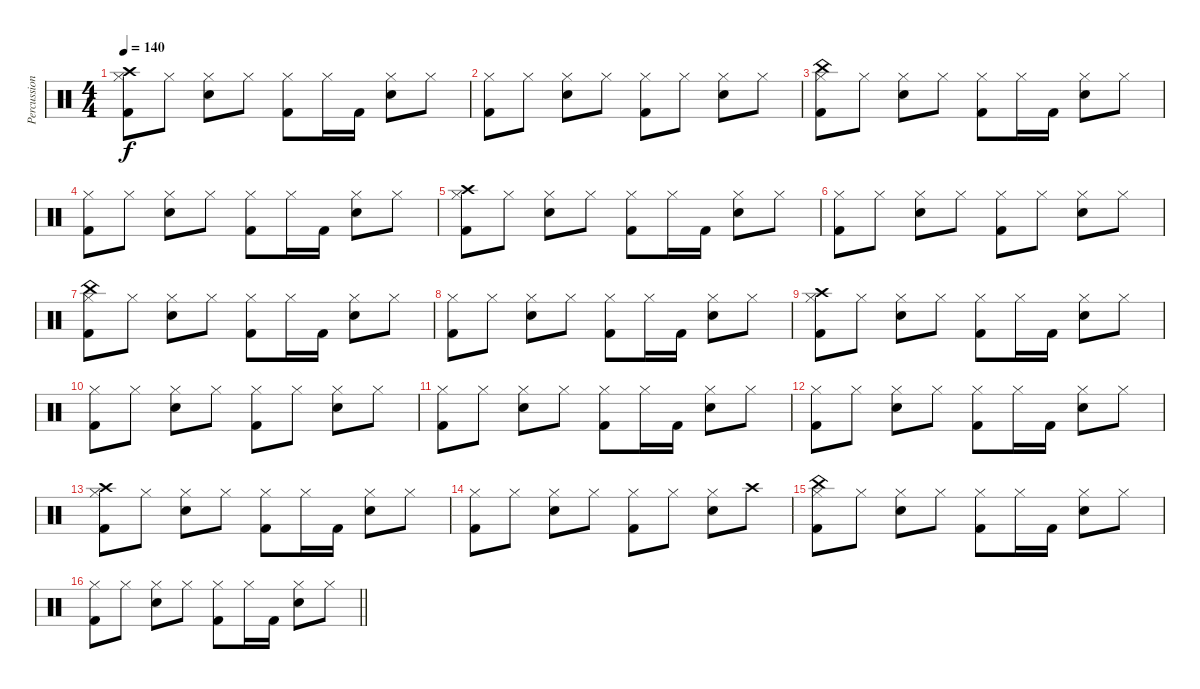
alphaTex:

\track ("Percussion" "Percussion") {instrument percussion}
\staff {score}
\articulation defaults
\ts (4 4)
\tempo 140
\clef neutral
\ks c
("Crash high (hit)" "Hi-Hat (closed)" "Kick (hit) 2").8{dy f} "Hi-Hat (closed)".8 ("Hi-Hat (closed)" "Electric Snare (hit)").8 "Hi-Hat (closed)".8 ("Hi-Hat (closed)" "Kick (hit) 2").8 "Hi-Hat (closed)".16 "Kick (hit) 2".16 ("Hi-Hat (closed)" "Electric Snare (hit)").8 "Hi-Hat (closed)".8 |
("Hi-Hat (closed)" "Kick (hit) 2").8 "Hi-Hat (closed)".8 ("Hi-Hat (closed)" "Electric Snare (hit)").8 "Hi-Hat (closed)".8 ("Hi-Hat (closed)" "Kick (hit) 2").8 "Hi-Hat (closed)".8 ("Hi-Hat (closed)" "Electric Snare (hit)").8 "Hi-Hat (closed)".8 |
("China (hit)" "Hi-Hat (closed)" "Kick (hit) 2").8 "Hi-Hat (closed)".8 ("Hi-Hat (closed)" "Electric Snare (hit)").8 "Hi-Hat (closed)".8 ("Hi-Hat (closed)" "Kick (hit) 2").8 "Hi-Hat (closed)".16 "Kick (hit) 2".16 ("Hi-Hat (closed)" "Electric Snare (hit)").8 "Hi-Hat (closed)".8 |
("Hi-Hat (closed)" "Kick (hit) 2").8 "Hi-Hat (closed)".8 ("Hi-Hat (closed)" "Electric Snare (hit)").8 "Hi-Hat (closed)".8 ("Hi-Hat (closed)" "Kick (hit) 2").8 "Hi-Hat (closed)".16 "Kick (hit) 2".16 ("Hi-Hat (closed)" "Electric Snare (hit)").8 "Hi-Hat (closed)".8 |
("Crash high (hit)" "Hi-Hat (closed)" "Kick (hit) 2").8 "Hi-Hat (closed)".8 ("Hi-Hat (closed)" "Electric Snare (hit)").8 "Hi-Hat (closed)".8 ("Hi-Hat (closed)" "Kick (hit) 2").8 "Hi-Hat (closed)".16 "Kick (hit) 2".16 ("Hi-Hat (closed)" "Electric Snare (hit)").8 "Hi-Hat (closed)".8 |
("Hi-Hat (closed)" "Kick (hit) 2").8 "Hi-Hat (closed)".8 ("Hi-Hat (closed)" "Electric Snare (hit)").8 "Hi-Hat (closed)".8 ("Hi-Hat (closed)" "Kick (hit) 2").8 "Hi-Hat (closed)".8 ("Hi-Hat (closed)" "Electric Snare (hit)").8 "Hi-Hat (closed)".8 |
("China (hit)" "Hi-Hat (closed)" "Kick (hit) 2").8 "Hi-Hat (closed)".8 ("Hi-Hat (closed)" "Electric Snare (hit)").8 "Hi-Hat (closed)".8 ("Hi-Hat (closed)" "Kick (hit) 2").8 "Hi-Hat (closed)".16 "Kick (hit) 2".16 ("Hi-Hat (closed)" "Electric Snare (hit)").8 "Hi-Hat (closed)".8 |
("Hi-Hat (closed)" "Kick (hit) 2").8 "Hi-Hat (closed)".8 ("Hi-Hat (closed)" "Electric Snare (hit)").8 "Hi-Hat (closed)".8 ("Hi-Hat (closed)" "Kick (hit) 2").8 "Hi-Hat (closed)".16 "Kick (hit) 2".16 ("Hi-Hat (closed)" "Electric Snare (hit)").8 "Hi-Hat (closed)".8 |
("Crash high (hit)" "Hi-Hat (closed)" "Kick (hit) 2").8 "Hi-Hat (closed)".8 ("Hi-Hat (closed)" "Electric Snare (hit)").8 "Hi-Hat (closed)".8 ("Hi-Hat (closed)" "Kick (hit) 2").8 "Hi-Hat (closed)".16 "Kick (hit) 2".16 ("Hi-Hat (closed)" "Electric Snare (hit)").8 "Hi-Hat (closed)".8 |
("Hi-Hat (closed)" "Kick (hit) 2").8 "Hi-Hat (closed)".8 ("Hi-Hat (closed)" "Electric Snare (hit)").8 "Hi-Hat (closed)".8 ("Hi-Hat (closed)" "Kick (hit) 2").8 "Hi-Hat (closed)".8 ("Hi-Hat (closed)" "Electric Snare (hit)").8 "Hi-Hat (closed)".8 |
("Hi-Hat (closed)" "Kick (hit) 2").8 "Hi-Hat (closed)".8 ("Hi-Hat (closed)" "Electric Snare (hit)").8 "Hi-Hat (closed)".8 ("Hi-Hat (closed)" "Kick (hit) 2").8 "Hi-Hat (closed)".16 "Kick (hit) 2".16 ("Hi-Hat (closed)" "Electric Snare (hit)").8 "Hi-Hat (closed)".8 |
("Hi-Hat (closed)" "Kick (hit) 2").8 "Hi-Hat (closed)".8 ("Hi-Hat (closed)" "Electric Snare (hit)").8 "Hi-Hat (closed)".8 ("Hi-Hat (closed)" "Kick (hit) 2").8 "Hi-Hat (closed)".16 "Kick (hit) 2".16 ("Hi-Hat (closed)" "Electric Snare (hit)").8 "Hi-Hat (closed)".8 |
("Crash high (hit)" "Hi-Hat (closed)" "Kick (hit) 2").8 "Hi-Hat (closed)".8 ("Hi-Hat (closed)" "Electric Snare (hit)").8 "Hi-Hat (closed)".8 ("Hi-Hat (closed)" "Kick (hit) 2").8 "Hi-Hat (closed)".16 "Kick (hit) 2".16 ("Hi-Hat (closed)" "Electric Snare (hit)").8 "Hi-Hat (closed)".8 |
("Hi-Hat (closed)" "Kick (hit) 2").8 "Hi-Hat (closed)".8 ("Hi-Hat (closed)" "Electric Snare (hit)").8 "Hi-Hat (closed)".8 ("Hi-Hat (closed)" "Kick (hit) 2").8 "Hi-Hat (closed)".8 ("Hi-Hat (closed)" "Electric Snare (hit)").8 "Crash high (hit)".8 |
("China (hit)" "Hi-Hat (closed)" "Kick (hit) 2").8 "Hi-Hat (closed)".8 ("Hi-Hat (closed)" "Electric Snare (hit)").8 "Hi-Hat (closed)".8 ("Hi-Hat (closed)" "Kick (hit) 2").8 "Hi-Hat (closed)".16 "Kick (hit) 2".16 ("Hi-Hat (closed)" "Electric Snare (hit)").8 "Hi-Hat (closed)".8 |
\barLineRight lightlight
("Hi-Hat (closed)" "Kick (hit) 2").8 "Hi-Hat (closed)".8 ("Hi-Hat (closed)" "Electric Snare (hit)").8 "Hi-Hat (closed)".8 ("Hi-Hat (closed)" "Kick (hit) 2").8 "Hi-Hat (closed)".16 "Kick (hit) 2".16 ("Hi-Hat (closed)" "Electric Snare (hit)").8 "Hi-Hat (closed)".8
